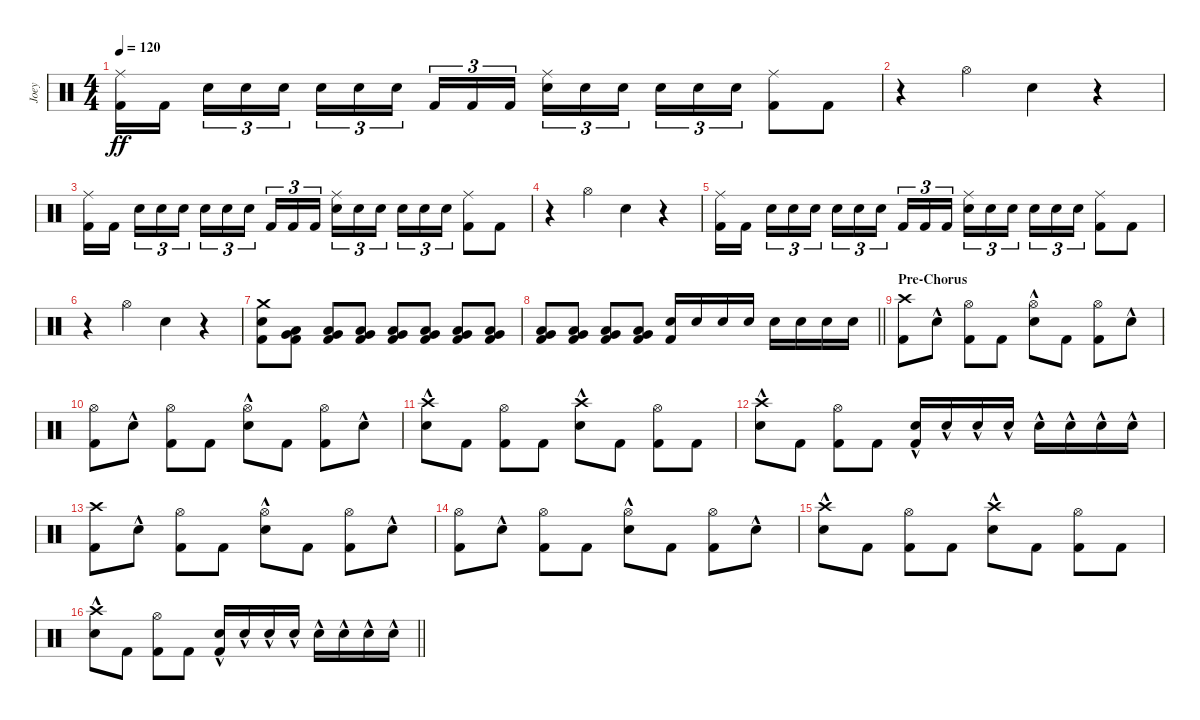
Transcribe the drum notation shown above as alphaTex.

\track ("Joey" "Joey") {instrument percussion}
\staff {score}
\articulation defaults
\ts (4 4)
\tempo 120
\clef neutral
\ks c
("Ride (middle)" "Kick (hit) 2").16{dy ff} "Kick (hit) 2".16{beam splitsecondary} "Snare (hit) 2".16{tu (3 2)} "Snare (hit) 2".16{tu (3 2)} "Snare (hit) 2".16{tu (3 2)} "Snare (hit) 2".16{tu (3 2)} "Snare (hit) 2".16{tu (3 2)} "Snare (hit) 2".16{tu (3 2) beam splitsecondary} "Kick (hit) 2".16{tu (3 2)} "Kick (hit) 2".16{tu (3 2)} "Kick (hit) 2".16{tu (3 2)} ("Ride (middle)" "Snare (hit) 2").16{tu (3 2)} "Snare (hit) 2".16{tu (3 2)} "Snare (hit) 2".16{tu (3 2) beam splitsecondary} "Snare (hit) 2".16{tu (3 2)} "Snare (hit) 2".16{tu (3 2)} "Snare (hit) 2".16{tu (3 2)} ("Ride (middle)" "Kick (hit) 2").8 "Kick (hit) 2".8 |
r.4 "Hi-Hat (open)".4 "Snare (hit) 2".4 r.4 |
("Ride (middle)" "Kick (hit) 2").16 "Kick (hit) 2".16{beam splitsecondary} "Snare (hit) 2".16{tu (3 2)} "Snare (hit) 2".16{tu (3 2)} "Snare (hit) 2".16{tu (3 2)} "Snare (hit) 2".16{tu (3 2)} "Snare (hit) 2".16{tu (3 2)} "Snare (hit) 2".16{tu (3 2) beam splitsecondary} "Kick (hit) 2".16{tu (3 2)} "Kick (hit) 2".16{tu (3 2)} "Kick (hit) 2".16{tu (3 2)} ("Ride (middle)" "Snare (hit) 2").16{tu (3 2)} "Snare (hit) 2".16{tu (3 2)} "Snare (hit) 2".16{tu (3 2) beam splitsecondary} "Snare (hit) 2".16{tu (3 2)} "Snare (hit) 2".16{tu (3 2)} "Snare (hit) 2".16{tu (3 2)} ("Ride (middle)" "Kick (hit) 2").8 "Kick (hit) 2".8 |
r.4 "Hi-Hat (open)".4 "Snare (hit) 2".4 r.4 |
("Ride (middle)" "Kick (hit) 2").16 "Kick (hit) 2".16{beam splitsecondary} "Snare (hit) 2".16{tu (3 2)} "Snare (hit) 2".16{tu (3 2)} "Snare (hit) 2".16{tu (3 2)} "Snare (hit) 2".16{tu (3 2)} "Snare (hit) 2".16{tu (3 2)} "Snare (hit) 2".16{tu (3 2) beam splitsecondary} "Kick (hit) 2".16{tu (3 2)} "Kick (hit) 2".16{tu (3 2)} "Kick (hit) 2".16{tu (3 2)} ("Ride (middle)" "Snare (hit) 2").16{tu (3 2)} "Snare (hit) 2".16{tu (3 2)} "Snare (hit) 2".16{tu (3 2) beam splitsecondary} "Snare (hit) 2".16{tu (3 2)} "Snare (hit) 2".16{tu (3 2)} "Snare (hit) 2".16{tu (3 2)} ("Ride (middle)" "Kick (hit) 2").8 "Kick (hit) 2".8 |
r.4 "Hi-Hat (open)".4 "Snare (hit) 2".4 r.4 |
("Crash medium (hit)" "Snare (hit) 2" "Kick (hit) 2").8 ("Very Low Tom (hit)" "Low Floor Tom (hit)" "Kick (hit) 2").8 ("Very Low Tom (hit)" "Low Floor Tom (hit)" "Kick (hit) 2").8 ("Very Low Tom (hit)" "Low Floor Tom (hit)" "Kick (hit) 2").8 ("Very Low Tom (hit)" "Low Floor Tom (hit)" "Kick (hit) 2").8 ("Very Low Tom (hit)" "Low Floor Tom (hit)" "Kick (hit) 2").8 ("Very Low Tom (hit)" "Low Floor Tom (hit)" "Kick (hit) 2").8 ("Very Low Tom (hit)" "Low Floor Tom (hit)" "Kick (hit) 2").8 |
\barLineRight lightlight
("Very Low Tom (hit)" "Low Floor Tom (hit)" "Kick (hit) 2").8 ("Very Low Tom (hit)" "Low Floor Tom (hit)" "Kick (hit) 2").8 ("Very Low Tom (hit)" "Low Floor Tom (hit)" "Kick (hit) 2").8 ("Very Low Tom (hit)" "Low Floor Tom (hit)" "Kick (hit) 2").8 ("Snare (hit) 2" "Kick (hit) 2").16 "Snare (hit) 2".16 "Snare (hit) 2".16 "Snare (hit) 2".16 "Snare (hit) 2".16 "Snare (hit) 2".16 "Snare (hit) 2".16 "Snare (hit) 2".16 |
\section ("" "Pre-Chorus")
("Crash high (hit)" "Kick (hit) 2").8 "Snare (hit) 2"{hac}.8 ("Hi-Hat (open)" "Kick (hit) 2").8 "Kick (hit) 2".8 ("Hi-Hat (open)" "Snare (hit) 2"{hac}).8 "Kick (hit) 2".8 ("Hi-Hat (open)" "Kick (hit) 2").8 "Snare (hit) 2"{hac}.8 |
("Hi-Hat (open)" "Kick (hit) 2").8 "Snare (hit) 2"{hac}.8 ("Hi-Hat (open)" "Kick (hit) 2").8 "Kick (hit) 2".8 ("Hi-Hat (open)" "Snare (hit) 2"{hac}).8 "Kick (hit) 2".8 ("Hi-Hat (open)" "Kick (hit) 2").8 "Snare (hit) 2"{hac}.8 |
("Crash high (hit)" "Snare (hit) 2"{hac}).8 "Kick (hit) 2".8 ("Hi-Hat (open)" "Kick (hit) 2").8 "Kick (hit) 2".8 ("Crash high (hit)" "Snare (hit) 2"{hac}).8 "Kick (hit) 2".8 ("Hi-Hat (open)" "Kick (hit) 2").8 "Kick (hit) 2".8 |
("Crash high (hit)" "Snare (hit) 2"{hac}).8 "Kick (hit) 2".8 ("Hi-Hat (open)" "Kick (hit) 2").8 "Kick (hit) 2".8 ("Snare (hit) 2"{hac} "Kick (hit) 2").16 "Snare (hit) 2"{hac}.16 "Snare (hit) 2"{hac}.16 "Snare (hit) 2"{hac}.16 "Snare (hit) 2"{hac}.16 "Snare (hit) 2"{hac}.16 "Snare (hit) 2"{hac}.16 "Snare (hit) 2"{hac}.16 |
("Crash high (hit)" "Kick (hit) 2").8 "Snare (hit) 2"{hac}.8 ("Hi-Hat (open)" "Kick (hit) 2").8 "Kick (hit) 2".8 ("Hi-Hat (open)" "Snare (hit) 2"{hac}).8 "Kick (hit) 2".8 ("Hi-Hat (open)" "Kick (hit) 2").8 "Snare (hit) 2"{hac}.8 |
("Hi-Hat (open)" "Kick (hit) 2").8 "Snare (hit) 2"{hac}.8 ("Hi-Hat (open)" "Kick (hit) 2").8 "Kick (hit) 2".8 ("Hi-Hat (open)" "Snare (hit) 2"{hac}).8 "Kick (hit) 2".8 ("Hi-Hat (open)" "Kick (hit) 2").8 "Snare (hit) 2"{hac}.8 |
("Crash high (hit)" "Snare (hit) 2"{hac}).8 "Kick (hit) 2".8 ("Hi-Hat (open)" "Kick (hit) 2").8 "Kick (hit) 2".8 ("Crash high (hit)" "Snare (hit) 2"{hac}).8 "Kick (hit) 2".8 ("Hi-Hat (open)" "Kick (hit) 2").8 "Kick (hit) 2".8 |
\barLineRight lightlight
("Crash high (hit)" "Snare (hit) 2"{hac}).8 "Kick (hit) 2".8 ("Hi-Hat (open)" "Kick (hit) 2").8 "Kick (hit) 2".8 ("Snare (hit) 2"{hac} "Kick (hit) 2").16 "Snare (hit) 2"{hac}.16 "Snare (hit) 2"{hac}.16 "Snare (hit) 2"{hac}.16 "Snare (hit) 2"{hac}.16 "Snare (hit) 2"{hac}.16 "Snare (hit) 2"{hac}.16 "Snare (hit) 2"{hac}.16
